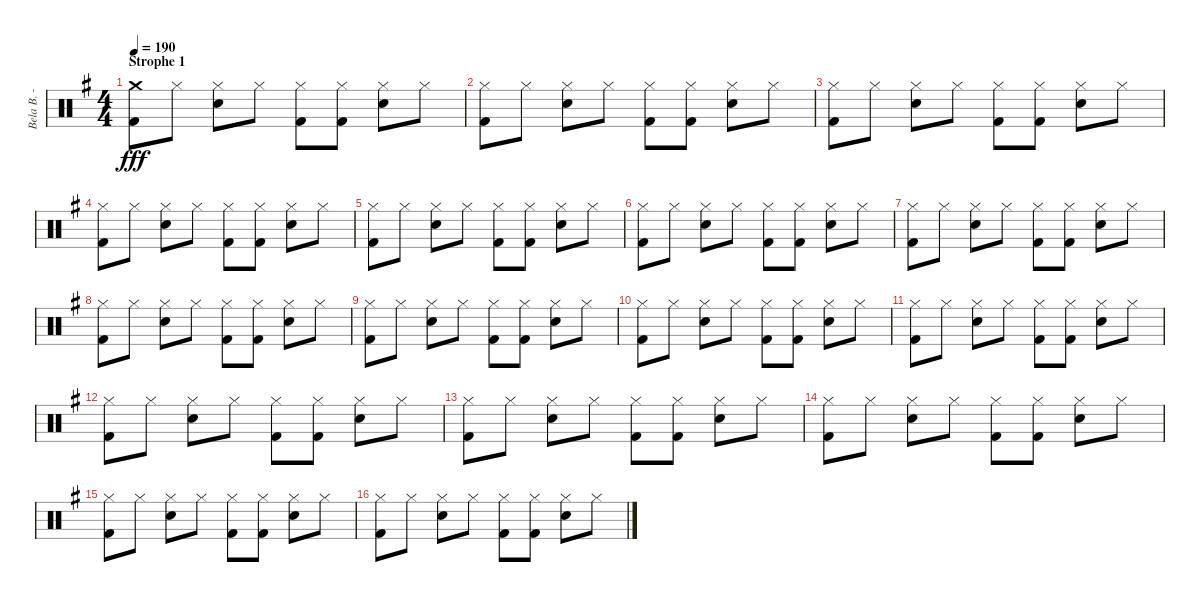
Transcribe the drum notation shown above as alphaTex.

\track ("Bela B. - Drums" "Bela B. - ") {instrument percussion}
\staff {score}
\articulation defaults
\ts (4 4)
\section ("" "Strophe 1")
\tempo 190
\clef neutral
\ks g
("Crash medium (hit)" "Kick (hit) 2").8{dy fff} "Hi-Hat (closed)".8 ("Hi-Hat (closed)" "Snare (hit) 2").8 "Hi-Hat (closed)".8 ("Hi-Hat (closed)" "Kick (hit) 2").8 ("Hi-Hat (closed)" "Kick (hit) 2").8 ("Hi-Hat (closed)" "Snare (hit) 2").8 "Hi-Hat (closed)".8 |
("Hi-Hat (closed)" "Kick (hit) 2").8 "Hi-Hat (closed)".8 ("Hi-Hat (closed)" "Snare (hit) 2").8 "Hi-Hat (closed)".8 ("Hi-Hat (closed)" "Kick (hit) 2").8 ("Hi-Hat (closed)" "Kick (hit) 2").8 ("Hi-Hat (closed)" "Snare (hit) 2").8 "Hi-Hat (closed)".8 |
("Hi-Hat (closed)" "Kick (hit) 2").8 "Hi-Hat (closed)".8 ("Hi-Hat (closed)" "Snare (hit) 2").8 "Hi-Hat (closed)".8 ("Hi-Hat (closed)" "Kick (hit) 2").8 ("Hi-Hat (closed)" "Kick (hit) 2").8 ("Hi-Hat (closed)" "Snare (hit) 2").8 "Hi-Hat (closed)".8 |
("Hi-Hat (closed)" "Kick (hit) 2").8 "Hi-Hat (closed)".8 ("Hi-Hat (closed)" "Snare (hit) 2").8 "Hi-Hat (closed)".8 ("Hi-Hat (closed)" "Kick (hit) 2").8 ("Hi-Hat (closed)" "Kick (hit) 2").8 ("Hi-Hat (closed)" "Snare (hit) 2").8 "Hi-Hat (closed)".8 |
("Hi-Hat (closed)" "Kick (hit) 2").8 "Hi-Hat (closed)".8 ("Hi-Hat (closed)" "Snare (hit) 2").8 "Hi-Hat (closed)".8 ("Hi-Hat (closed)" "Kick (hit) 2").8 ("Hi-Hat (closed)" "Kick (hit) 2").8 ("Hi-Hat (closed)" "Snare (hit) 2").8 "Hi-Hat (closed)".8 |
("Hi-Hat (closed)" "Kick (hit) 2").8 "Hi-Hat (closed)".8 ("Hi-Hat (closed)" "Snare (hit) 2").8 "Hi-Hat (closed)".8 ("Hi-Hat (closed)" "Kick (hit) 2").8 ("Hi-Hat (closed)" "Kick (hit) 2").8 ("Hi-Hat (closed)" "Snare (hit) 2").8 "Hi-Hat (closed)".8 |
("Hi-Hat (closed)" "Kick (hit) 2").8 "Hi-Hat (closed)".8 ("Hi-Hat (closed)" "Snare (hit) 2").8 "Hi-Hat (closed)".8 ("Hi-Hat (closed)" "Kick (hit) 2").8 ("Hi-Hat (closed)" "Kick (hit) 2").8 ("Hi-Hat (closed)" "Snare (hit) 2").8 "Hi-Hat (closed)".8 |
("Hi-Hat (closed)" "Kick (hit) 2").8 "Hi-Hat (closed)".8 ("Hi-Hat (closed)" "Snare (hit) 2").8 "Hi-Hat (closed)".8 ("Hi-Hat (closed)" "Kick (hit) 2").8 ("Hi-Hat (closed)" "Kick (hit) 2").8 ("Hi-Hat (closed)" "Snare (hit) 2").8 "Hi-Hat (closed)".8 |
("Hi-Hat (closed)" "Kick (hit) 2").8 "Hi-Hat (closed)".8 ("Hi-Hat (closed)" "Snare (hit) 2").8 "Hi-Hat (closed)".8 ("Hi-Hat (closed)" "Kick (hit) 2").8 ("Hi-Hat (closed)" "Kick (hit) 2").8 ("Hi-Hat (closed)" "Snare (hit) 2").8 "Hi-Hat (closed)".8 |
("Hi-Hat (closed)" "Kick (hit) 2").8 "Hi-Hat (closed)".8 ("Hi-Hat (closed)" "Snare (hit) 2").8 "Hi-Hat (closed)".8 ("Hi-Hat (closed)" "Kick (hit) 2").8 ("Hi-Hat (closed)" "Kick (hit) 2").8 ("Hi-Hat (closed)" "Snare (hit) 2").8 "Hi-Hat (closed)".8 |
("Hi-Hat (closed)" "Kick (hit) 2").8 "Hi-Hat (closed)".8 ("Hi-Hat (closed)" "Snare (hit) 2").8 "Hi-Hat (closed)".8 ("Hi-Hat (closed)" "Kick (hit) 2").8 ("Hi-Hat (closed)" "Kick (hit) 2").8 ("Hi-Hat (closed)" "Snare (hit) 2").8 "Hi-Hat (closed)".8 |
("Hi-Hat (closed)" "Kick (hit) 2").8 "Hi-Hat (closed)".8 ("Hi-Hat (closed)" "Snare (hit) 2").8 "Hi-Hat (closed)".8 ("Hi-Hat (closed)" "Kick (hit) 2").8 ("Hi-Hat (closed)" "Kick (hit) 2").8 ("Hi-Hat (closed)" "Snare (hit) 2").8 "Hi-Hat (closed)".8 |
("Hi-Hat (closed)" "Kick (hit) 2").8 "Hi-Hat (closed)".8 ("Hi-Hat (closed)" "Snare (hit) 2").8 "Hi-Hat (closed)".8 ("Hi-Hat (closed)" "Kick (hit) 2").8 ("Hi-Hat (closed)" "Kick (hit) 2").8 ("Hi-Hat (closed)" "Snare (hit) 2").8 "Hi-Hat (closed)".8 |
("Hi-Hat (closed)" "Kick (hit) 2").8 "Hi-Hat (closed)".8 ("Hi-Hat (closed)" "Snare (hit) 2").8 "Hi-Hat (closed)".8 ("Hi-Hat (closed)" "Kick (hit) 2").8 ("Hi-Hat (closed)" "Kick (hit) 2").8 ("Hi-Hat (closed)" "Snare (hit) 2").8 "Hi-Hat (closed)".8 |
("Hi-Hat (closed)" "Kick (hit) 2").8 "Hi-Hat (closed)".8 ("Hi-Hat (closed)" "Snare (hit) 2").8 "Hi-Hat (closed)".8 ("Hi-Hat (closed)" "Kick (hit) 2").8 ("Hi-Hat (closed)" "Kick (hit) 2").8 ("Hi-Hat (closed)" "Snare (hit) 2").8 "Hi-Hat (closed)".8 |
("Hi-Hat (closed)" "Kick (hit) 2").8 "Hi-Hat (closed)".8 ("Hi-Hat (closed)" "Snare (hit) 2").8 "Hi-Hat (closed)".8 ("Hi-Hat (closed)" "Kick (hit) 2").8 ("Hi-Hat (closed)" "Kick (hit) 2").8 ("Hi-Hat (closed)" "Snare (hit) 2").8 "Hi-Hat (closed)".8
